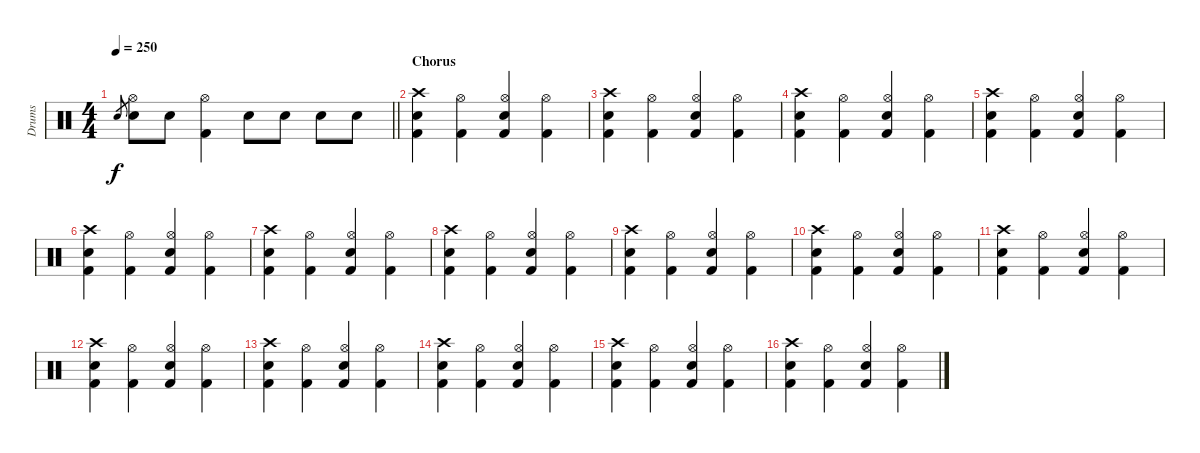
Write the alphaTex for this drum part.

\track ("Drums" "Drums") {instrument percussion}
\staff {score}
\articulation defaults
\ts (4 4)
\tempo 250
\clef neutral
\barLineRight lightlight
\ks c "Electric Snare (hit)".8{gr dy f}
("Hi-Hat (open)" "Electric Snare (hit)").8 "Electric Snare (hit)".8 ("Hi-Hat (open)" "Kick (hit) 2").4 "Electric Snare (hit)".8 "Electric Snare (hit)".8 "Electric Snare (hit)".8 "Electric Snare (hit)".8 |
\section ("" "Chorus")
("Crash high (hit)" "Electric Snare (hit)" "Kick (hit) 2").4 ("Hi-Hat (open)" "Kick (hit) 2").4 ("Hi-Hat (open)" "Electric Snare (hit)" "Kick (hit) 2").4 ("Hi-Hat (open)" "Kick (hit) 2").4 |
("Crash high (hit)" "Electric Snare (hit)" "Kick (hit) 2").4 ("Hi-Hat (open)" "Kick (hit) 2").4 ("Hi-Hat (open)" "Electric Snare (hit)" "Kick (hit) 2").4 ("Hi-Hat (open)" "Kick (hit) 2").4 |
("Crash high (hit)" "Electric Snare (hit)" "Kick (hit) 2").4 ("Hi-Hat (open)" "Kick (hit) 2").4 ("Hi-Hat (open)" "Electric Snare (hit)" "Kick (hit) 2").4 ("Hi-Hat (open)" "Kick (hit) 2").4 |
("Crash high (hit)" "Electric Snare (hit)" "Kick (hit) 2").4 ("Hi-Hat (open)" "Kick (hit) 2").4 ("Hi-Hat (open)" "Electric Snare (hit)" "Kick (hit) 2").4 ("Hi-Hat (open)" "Kick (hit) 2").4 |
("Crash high (hit)" "Electric Snare (hit)" "Kick (hit) 2").4 ("Hi-Hat (open)" "Kick (hit) 2").4 ("Hi-Hat (open)" "Electric Snare (hit)" "Kick (hit) 2").4 ("Hi-Hat (open)" "Kick (hit) 2").4 |
("Crash high (hit)" "Electric Snare (hit)" "Kick (hit) 2").4 ("Hi-Hat (open)" "Kick (hit) 2").4 ("Hi-Hat (open)" "Electric Snare (hit)" "Kick (hit) 2").4 ("Hi-Hat (open)" "Kick (hit) 2").4 |
("Crash high (hit)" "Electric Snare (hit)" "Kick (hit) 2").4 ("Hi-Hat (open)" "Kick (hit) 2").4 ("Hi-Hat (open)" "Electric Snare (hit)" "Kick (hit) 2").4 ("Hi-Hat (open)" "Kick (hit) 2").4 |
("Crash high (hit)" "Electric Snare (hit)" "Kick (hit) 2").4 ("Hi-Hat (open)" "Kick (hit) 2").4 ("Hi-Hat (open)" "Electric Snare (hit)" "Kick (hit) 2").4 ("Hi-Hat (open)" "Kick (hit) 2").4 |
("Crash high (hit)" "Electric Snare (hit)" "Kick (hit) 2").4 ("Hi-Hat (open)" "Kick (hit) 2").4 ("Hi-Hat (open)" "Electric Snare (hit)" "Kick (hit) 2").4 ("Hi-Hat (open)" "Kick (hit) 2").4 |
("Crash high (hit)" "Electric Snare (hit)" "Kick (hit) 2").4 ("Hi-Hat (open)" "Kick (hit) 2").4 ("Hi-Hat (open)" "Electric Snare (hit)" "Kick (hit) 2").4 ("Hi-Hat (open)" "Kick (hit) 2").4 |
("Crash high (hit)" "Electric Snare (hit)" "Kick (hit) 2").4 ("Hi-Hat (open)" "Kick (hit) 2").4 ("Hi-Hat (open)" "Electric Snare (hit)" "Kick (hit) 2").4 ("Hi-Hat (open)" "Kick (hit) 2").4 |
("Crash high (hit)" "Electric Snare (hit)" "Kick (hit) 2").4 ("Hi-Hat (open)" "Kick (hit) 2").4 ("Hi-Hat (open)" "Electric Snare (hit)" "Kick (hit) 2").4 ("Hi-Hat (open)" "Kick (hit) 2").4 |
("Crash high (hit)" "Electric Snare (hit)" "Kick (hit) 2").4 ("Hi-Hat (open)" "Kick (hit) 2").4 ("Hi-Hat (open)" "Electric Snare (hit)" "Kick (hit) 2").4 ("Hi-Hat (open)" "Kick (hit) 2").4 |
("Crash high (hit)" "Electric Snare (hit)" "Kick (hit) 2").4 ("Hi-Hat (open)" "Kick (hit) 2").4 ("Hi-Hat (open)" "Electric Snare (hit)" "Kick (hit) 2").4 ("Hi-Hat (open)" "Kick (hit) 2").4 |
("Crash high (hit)" "Electric Snare (hit)" "Kick (hit) 2").4 ("Hi-Hat (open)" "Kick (hit) 2").4 ("Hi-Hat (open)" "Electric Snare (hit)" "Kick (hit) 2").4 ("Hi-Hat (open)" "Kick (hit) 2").4
